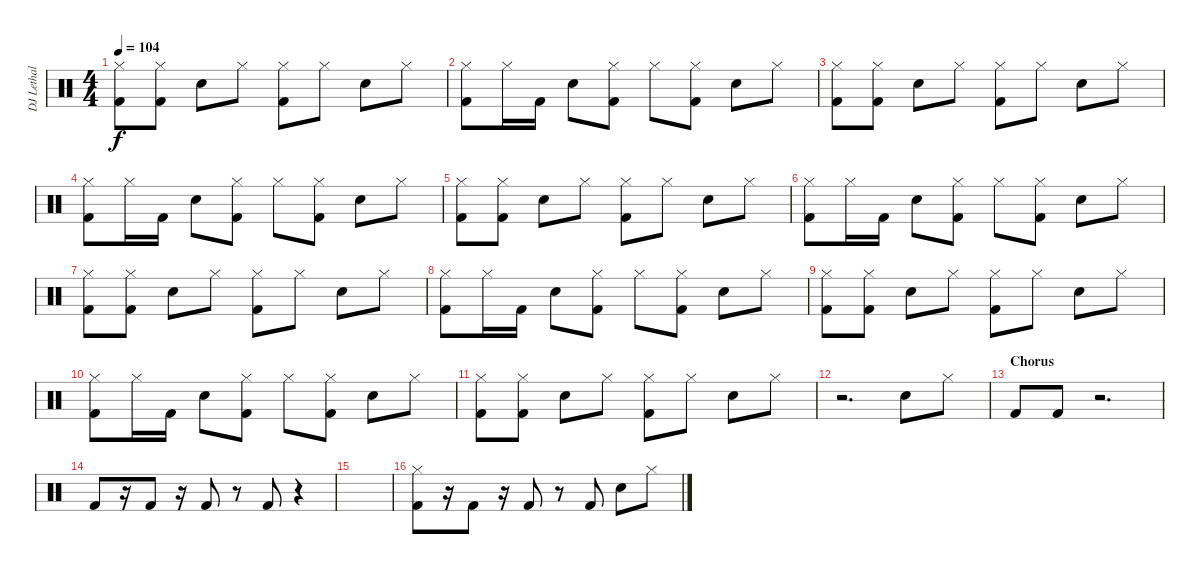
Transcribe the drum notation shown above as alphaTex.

\track ("DJ Lethal - Sample Drums" "DJ Lethal ") {instrument percussion}
\staff {score}
\articulation defaults
\ts (4 4)
\tempo 104
\clef neutral
\ks c
("Hi-Hat (closed)" "Kick (hit) 2").8{dy f} ("Hi-Hat (closed)" "Kick (hit) 2").8 "Electric Snare (hit)".8 "Hi-Hat (closed)".8 ("Hi-Hat (closed)" "Kick (hit) 2").8 "Hi-Hat (closed)".8 "Electric Snare (hit)".8 "Hi-Hat (closed)".8 |
("Hi-Hat (closed)" "Kick (hit) 2").8 "Hi-Hat (closed)".16 "Kick (hit) 2".16 "Electric Snare (hit)".8 ("Hi-Hat (closed)" "Kick (hit) 2").8 "Hi-Hat (closed)".8 ("Hi-Hat (closed)" "Kick (hit) 2").8 "Electric Snare (hit)".8 "Hi-Hat (closed)".8 |
("Hi-Hat (closed)" "Kick (hit) 2").8 ("Hi-Hat (closed)" "Kick (hit) 2").8 "Electric Snare (hit)".8 "Hi-Hat (closed)".8 ("Hi-Hat (closed)" "Kick (hit) 2").8 "Hi-Hat (closed)".8 "Electric Snare (hit)".8 "Hi-Hat (closed)".8 |
("Hi-Hat (closed)" "Kick (hit) 2").8 "Hi-Hat (closed)".16 "Kick (hit) 2".16 "Electric Snare (hit)".8 ("Hi-Hat (closed)" "Kick (hit) 2").8 "Hi-Hat (closed)".8 ("Hi-Hat (closed)" "Kick (hit) 2").8 "Electric Snare (hit)".8 "Hi-Hat (closed)".8 |
("Hi-Hat (closed)" "Kick (hit) 2").8 ("Hi-Hat (closed)" "Kick (hit) 2").8 "Electric Snare (hit)".8 "Hi-Hat (closed)".8 ("Hi-Hat (closed)" "Kick (hit) 2").8 "Hi-Hat (closed)".8 "Electric Snare (hit)".8 "Hi-Hat (closed)".8 |
("Hi-Hat (closed)" "Kick (hit) 2").8 "Hi-Hat (closed)".16 "Kick (hit) 2".16 "Electric Snare (hit)".8 ("Hi-Hat (closed)" "Kick (hit) 2").8 "Hi-Hat (closed)".8 ("Hi-Hat (closed)" "Kick (hit) 2").8 "Electric Snare (hit)".8 "Hi-Hat (closed)".8 |
("Hi-Hat (closed)" "Kick (hit) 2").8 ("Hi-Hat (closed)" "Kick (hit) 2").8 "Electric Snare (hit)".8 "Hi-Hat (closed)".8 ("Hi-Hat (closed)" "Kick (hit) 2").8 "Hi-Hat (closed)".8 "Electric Snare (hit)".8 "Hi-Hat (closed)".8 |
("Hi-Hat (closed)" "Kick (hit) 2").8 "Hi-Hat (closed)".16 "Kick (hit) 2".16 "Electric Snare (hit)".8 ("Hi-Hat (closed)" "Kick (hit) 2").8 "Hi-Hat (closed)".8 ("Hi-Hat (closed)" "Kick (hit) 2").8 "Electric Snare (hit)".8 "Hi-Hat (closed)".8 |
("Hi-Hat (closed)" "Kick (hit) 2").8 ("Hi-Hat (closed)" "Kick (hit) 2").8 "Electric Snare (hit)".8 "Hi-Hat (closed)".8 ("Hi-Hat (closed)" "Kick (hit) 2").8 "Hi-Hat (closed)".8 "Electric Snare (hit)".8 "Hi-Hat (closed)".8 |
("Hi-Hat (closed)" "Kick (hit) 2").8 "Hi-Hat (closed)".16 "Kick (hit) 2".16 "Electric Snare (hit)".8 ("Hi-Hat (closed)" "Kick (hit) 2").8 "Hi-Hat (closed)".8 ("Hi-Hat (closed)" "Kick (hit) 2").8 "Electric Snare (hit)".8 "Hi-Hat (closed)".8 |
("Hi-Hat (closed)" "Kick (hit) 2").8 ("Hi-Hat (closed)" "Kick (hit) 2").8 "Electric Snare (hit)".8 "Hi-Hat (closed)".8 ("Hi-Hat (closed)" "Kick (hit) 2").8 "Hi-Hat (closed)".8 "Electric Snare (hit)".8 "Hi-Hat (closed)".8 |
r.2{d} "Electric Snare (hit)".8 "Hi-Hat (closed)".8 |
\section ("" "Chorus")
"Kick (hit) 2".8 "Kick (hit) 2".8 r.2{d} |
"Kick (hit) 2".8 r.16 "Kick (hit) 2".8 r.16 "Kick (hit) 2".8 r.8 "Kick (hit) 2".8 r.4 |
|
("Hi-Hat (closed)" "Kick (hit) 2").8 r.16 "Kick (hit) 2".8 r.16 "Kick (hit) 2".8 r.8 "Kick (hit) 2".8 "Electric Snare (hit)".8 "Hi-Hat (closed)".8
